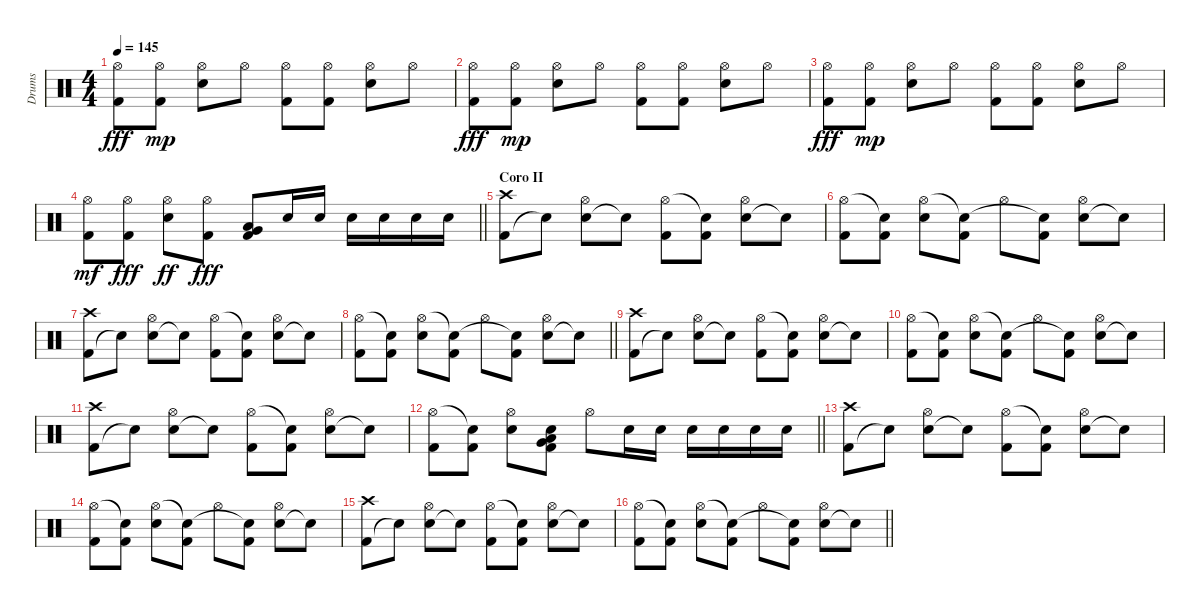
\track ("Drums" "Drums") {instrument percussion}
\staff {score}
\articulation defaults
\ts (4 4)
\tempo 145
\clef neutral
\ks c
("Kick (hit) 2" "Hi-Hat (open)").8{dy fff} ("Kick (hit) 2" "Hi-Hat (open)").8{dy mp} ("Snare (hit) 2" "Hi-Hat (open)").8 "Hi-Hat (open)".8 ("Kick (hit) 2" "Hi-Hat (open)").8 ("Kick (hit) 2" "Hi-Hat (open)").8 ("Snare (hit) 2" "Hi-Hat (open)").8 "Hi-Hat (open)".8 |
("Kick (hit) 2" "Hi-Hat (open)").8{dy fff} ("Kick (hit) 2" "Hi-Hat (open)").8{dy mp} ("Snare (hit) 2" "Hi-Hat (open)").8 "Hi-Hat (open)".8 ("Kick (hit) 2" "Hi-Hat (open)").8 ("Kick (hit) 2" "Hi-Hat (open)").8 ("Snare (hit) 2" "Hi-Hat (open)").8 "Hi-Hat (open)".8 |
("Kick (hit) 2" "Hi-Hat (open)").8{dy fff} ("Kick (hit) 2" "Hi-Hat (open)").8{dy mp} ("Snare (hit) 2" "Hi-Hat (open)").8 "Hi-Hat (open)".8 ("Kick (hit) 2" "Hi-Hat (open)").8 ("Kick (hit) 2" "Hi-Hat (open)").8 ("Snare (hit) 2" "Hi-Hat (open)").8 "Hi-Hat (open)".8 |
\barLineRight lightlight
("Kick (hit) 2" "Hi-Hat (open)").8{dy mf} ("Kick (hit) 2" "Hi-Hat (open)").8{dy fff} ("Snare (hit) 2" "Hi-Hat (open)").8{dy ff} ("Kick (hit) 2" "Hi-Hat (open)").8{dy fff} ("Kick (hit) 2" "Low Floor Tom (hit)" "Very Low Tom (hit)").8 "Snare (hit) 2".16 "Snare (hit) 2".16 "Snare (hit) 2".16 "Snare (hit) 2".16 "Snare (hit) 2".16 "Snare (hit) 2".16 |
\section ("" "Coro II")
("Kick (hit) 2" "Crash high (hit)").8 "Snare (hit)"{t}.8 ("Snare (hit) 2" "Hi-Hat (open)").8 "Snare (hit)"{t}.8 ("Kick (hit) 2" "Hi-Hat (open)").8 ("Kick (hit) 2" "Snare (hit)"{t}).8 ("Snare (hit) 2" "Hi-Hat (open)").8 "Snare (hit)"{t}.8 |
("Kick (hit) 2" "Hi-Hat (open)").8 ("Kick (hit) 2" "Snare (hit)"{t}).8 ("Snare (hit) 2" "Hi-Hat (open)").8 ("Kick (hit) 2" "Snare (hit)"{t}).8 "Hi-Hat (open)".8 ("Kick (hit) 2" "Snare (hit)"{t}).8 ("Snare (hit) 2" "Hi-Hat (open)").8 "Snare (hit)"{t}.8 |
("Kick (hit) 2" "Crash high (hit)").8 "Snare (hit)"{t}.8 ("Snare (hit) 2" "Hi-Hat (open)").8 "Snare (hit)"{t}.8 ("Kick (hit) 2" "Hi-Hat (open)").8 ("Kick (hit) 2" "Snare (hit)"{t}).8 ("Snare (hit) 2" "Hi-Hat (open)").8 "Snare (hit)"{t}.8 |
\barLineRight lightlight
("Kick (hit) 2" "Hi-Hat (open)").8 ("Kick (hit) 2" "Snare (hit)"{t}).8 ("Snare (hit) 2" "Hi-Hat (open)").8 ("Kick (hit) 2" "Snare (hit)"{t}).8 "Hi-Hat (open)".8 ("Kick (hit) 2" "Snare (hit)"{t}).8 ("Snare (hit) 2" "Hi-Hat (open)").8 "Snare (hit)"{t}.8 |
("Kick (hit) 2" "Crash high (hit)").8 "Snare (hit)"{t}.8 ("Snare (hit) 2" "Hi-Hat (open)").8 "Snare (hit)"{t}.8 ("Kick (hit) 2" "Hi-Hat (open)").8 ("Kick (hit) 2" "Snare (hit)"{t}).8 ("Snare (hit) 2" "Hi-Hat (open)").8 "Snare (hit)"{t}.8 |
("Kick (hit) 2" "Hi-Hat (open)").8 ("Kick (hit) 2" "Snare (hit)"{t}).8 ("Snare (hit) 2" "Hi-Hat (open)").8 ("Kick (hit) 2" "Snare (hit)"{t}).8 "Hi-Hat (open)".8 ("Kick (hit) 2" "Snare (hit)"{t}).8 ("Snare (hit) 2" "Hi-Hat (open)").8 "Snare (hit)"{t}.8 |
("Kick (hit) 2" "Crash high (hit)").8 "Snare (hit)"{t}.8 ("Snare (hit) 2" "Hi-Hat (open)").8 "Snare (hit)"{t}.8 ("Kick (hit) 2" "Hi-Hat (open)").8 ("Kick (hit) 2" "Snare (hit)"{t}).8 ("Snare (hit) 2" "Hi-Hat (open)").8 "Snare (hit)"{t}.8 |
\barLineRight lightlight
("Kick (hit) 2" "Hi-Hat (open)").8 ("Kick (hit) 2" "Snare (hit)"{t}).8 ("Snare (hit) 2" "Hi-Hat (open)").8 ("Kick (hit) 2" "Very Low Tom (hit)" "Low Tom (hit)" "Snare (hit)").8 "Hi-Hat (open)".8 "Snare (hit) 2".16 "Snare (hit) 2".16 "Snare (hit) 2".16 "Snare (hit) 2".16 "Snare (hit) 2".16 "Snare (hit) 2".16 |
("Kick (hit) 2" "Crash high (hit)").8 "Snare (hit)"{t}.8 ("Snare (hit) 2" "Hi-Hat (open)").8 "Snare (hit)"{t}.8 ("Kick (hit) 2" "Hi-Hat (open)").8 ("Kick (hit) 2" "Snare (hit)"{t}).8 ("Snare (hit) 2" "Hi-Hat (open)").8 "Snare (hit)"{t}.8 |
("Kick (hit) 2" "Hi-Hat (open)").8 ("Kick (hit) 2" "Snare (hit)"{t}).8 ("Snare (hit) 2" "Hi-Hat (open)").8 ("Kick (hit) 2" "Snare (hit)"{t}).8 "Hi-Hat (open)".8 ("Kick (hit) 2" "Snare (hit)"{t}).8 ("Snare (hit) 2" "Hi-Hat (open)").8 "Snare (hit)"{t}.8 |
("Kick (hit) 2" "Crash high (hit)").8 "Snare (hit)"{t}.8 ("Snare (hit) 2" "Hi-Hat (open)").8 "Snare (hit)"{t}.8 ("Kick (hit) 2" "Hi-Hat (open)").8 ("Kick (hit) 2" "Snare (hit)"{t}).8 ("Snare (hit) 2" "Hi-Hat (open)").8 "Snare (hit)"{t}.8 |
\barLineRight lightlight
("Kick (hit) 2" "Hi-Hat (open)").8 ("Kick (hit) 2" "Snare (hit)"{t}).8 ("Snare (hit) 2" "Hi-Hat (open)").8 ("Kick (hit) 2" "Snare (hit)"{t}).8 "Hi-Hat (open)".8 ("Kick (hit) 2" "Snare (hit)"{t}).8 ("Snare (hit) 2" "Hi-Hat (open)").8 "Snare (hit)"{t}.8
